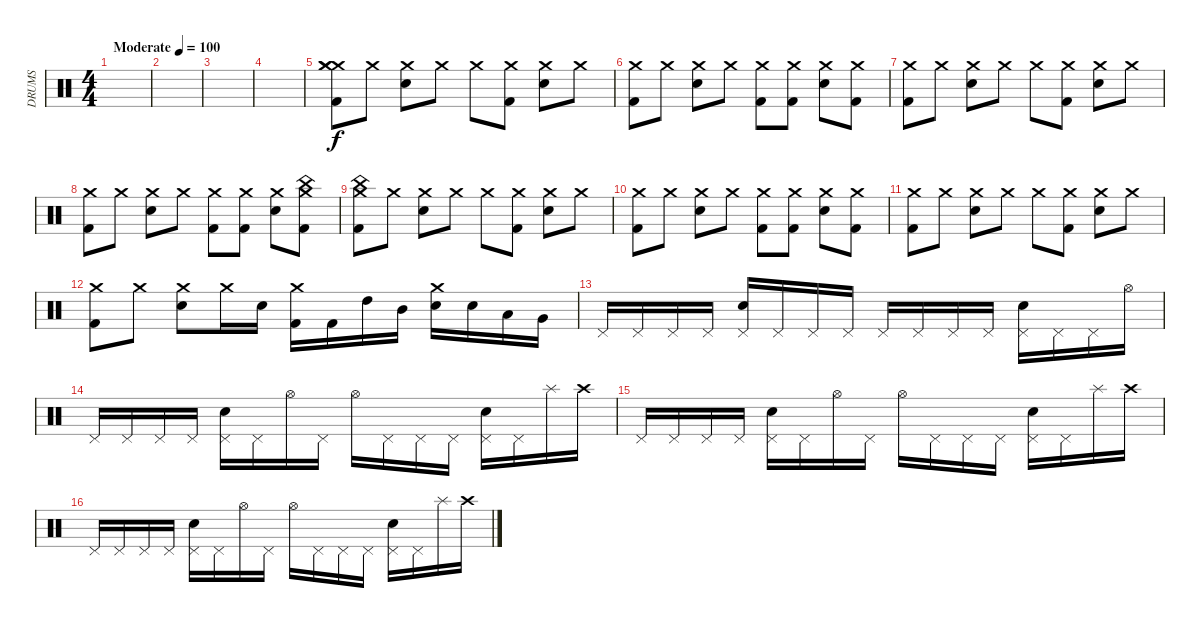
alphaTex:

\track ("DRUMS" "DRUMS") {instrument percussion}
\staff {score}
\articulation defaults
\ts (4 4)
\tempo (100 "Moderate")
\clef neutral
\ks c
|
|
|
|
("Crash medium (hit)" "Crash medium (hit)" "Crash medium (hit)" "Kick (hit) 2").8 "Crash medium (hit)".8 ("Crash medium (hit)" "Electric Snare (hit)").8 "Crash medium (hit)".8 "Crash medium (hit)".8 ("Crash medium (hit)" "Kick (hit) 2").8 ("Crash medium (hit)" "Electric Snare (hit)").8 "Crash medium (hit)".8 |
("Crash medium (hit)" "Kick (hit) 2").8 "Crash medium (hit)".8 ("Crash medium (hit)" "Electric Snare (hit)").8 "Crash medium (hit)".8 ("Crash medium (hit)" "Kick (hit) 2").8 ("Crash medium (hit)" "Kick (hit) 2").8 ("Crash medium (hit)" "Electric Snare (hit)").8 ("Crash medium (hit)" "Kick (hit) 2").8 |
("Crash medium (hit)" "Kick (hit) 2").8 "Crash medium (hit)".8 ("Crash medium (hit)" "Electric Snare (hit)").8 "Crash medium (hit)".8 "Crash medium (hit)".8 ("Crash medium (hit)" "Kick (hit) 2").8 ("Crash medium (hit)" "Electric Snare (hit)").8 "Crash medium (hit)".8 |
("Crash medium (hit)" "Kick (hit) 2").8 "Crash medium (hit)".8 ("Crash medium (hit)" "Electric Snare (hit)").8 "Crash medium (hit)".8 ("Crash medium (hit)" "Kick (hit) 2").8 ("Crash medium (hit)" "Kick (hit) 2").8 ("Crash medium (hit)" "Electric Snare (hit)").8 ("Crash medium (hit)" "China (hit)" "Kick (hit) 2").8 |
("Crash medium (hit)" "China (hit)" "Kick (hit) 2").8 "Crash medium (hit)".8 ("Crash medium (hit)" "Electric Snare (hit)").8 "Crash medium (hit)".8 "Crash medium (hit)".8 ("Crash medium (hit)" "Kick (hit) 2").8 ("Crash medium (hit)" "Electric Snare (hit)").8 "Crash medium (hit)".8 |
("Crash medium (hit)" "Kick (hit) 2").8 "Crash medium (hit)".8 ("Crash medium (hit)" "Electric Snare (hit)").8 "Crash medium (hit)".8 ("Crash medium (hit)" "Kick (hit) 2").8 ("Crash medium (hit)" "Kick (hit) 2").8 ("Crash medium (hit)" "Electric Snare (hit)").8 ("Crash medium (hit)" "Kick (hit) 2").8 |
("Crash medium (hit)" "Kick (hit) 2").8 "Crash medium (hit)".8 ("Crash medium (hit)" "Electric Snare (hit)").8 "Crash medium (hit)".8 "Crash medium (hit)".8 ("Crash medium (hit)" "Kick (hit) 2").8 ("Crash medium (hit)" "Electric Snare (hit)").8 "Crash medium (hit)".8 |
("Crash medium (hit)" "Kick (hit) 2").8 "Crash medium (hit)".8 ("Crash medium (hit)" "Electric Snare (hit)").8 "Crash medium (hit)".16 "Electric Snare (hit)".16 ("Crash medium (hit)" "Kick (hit) 2").16 "Kick (hit) 2".16 "High Tom (hit)".16 "Mid Tom (hit)".16 ("Crash medium (hit)" "Electric Snare (hit)").16 "Electric Snare (hit)".16 "Low Tom (hit)".16 "Very Low Tom (hit)".16 |
"Pedal Hi-Hat (hit)".16 "Pedal Hi-Hat (hit)".16 "Pedal Hi-Hat (hit)".16 "Pedal Hi-Hat (hit)".16 ("Pedal Hi-Hat (hit)" "Electric Snare (hit)").16 "Pedal Hi-Hat (hit)".16 "Pedal Hi-Hat (hit)".16 "Pedal Hi-Hat (hit)".16 "Pedal Hi-Hat (hit)".16 "Pedal Hi-Hat (hit)".16 "Pedal Hi-Hat (hit)".16 "Pedal Hi-Hat (hit)".16 ("Pedal Hi-Hat (hit)" "Electric Snare (hit)").16 "Pedal Hi-Hat (hit)".16 "Pedal Hi-Hat (hit)".16 "Hi-Hat (open)".16 |
"Pedal Hi-Hat (hit)".16 "Pedal Hi-Hat (hit)".16 "Pedal Hi-Hat (hit)".16 "Pedal Hi-Hat (hit)".16 ("Pedal Hi-Hat (hit)" "Electric Snare (hit)").16 "Pedal Hi-Hat (hit)".16 "Hi-Hat (open)".16 "Pedal Hi-Hat (hit)".16 "Hi-Hat (open)".16 "Pedal Hi-Hat (hit)".16 "Pedal Hi-Hat (hit)".16 "Pedal Hi-Hat (hit)".16 ("Pedal Hi-Hat (hit)" "Electric Snare (hit)").16 "Pedal Hi-Hat (hit)".16 "Splash (hit)".16 "Crash high (hit)".16 |
"Pedal Hi-Hat (hit)".16 "Pedal Hi-Hat (hit)".16 "Pedal Hi-Hat (hit)".16 "Pedal Hi-Hat (hit)".16 ("Pedal Hi-Hat (hit)" "Electric Snare (hit)").16 "Pedal Hi-Hat (hit)".16 "Hi-Hat (open)".16 "Pedal Hi-Hat (hit)".16 "Hi-Hat (open)".16 "Pedal Hi-Hat (hit)".16 "Pedal Hi-Hat (hit)".16 "Pedal Hi-Hat (hit)".16 ("Pedal Hi-Hat (hit)" "Electric Snare (hit)").16 "Pedal Hi-Hat (hit)".16 "Splash (hit)".16 "Crash high (hit)".16 |
"Pedal Hi-Hat (hit)".16 "Pedal Hi-Hat (hit)".16 "Pedal Hi-Hat (hit)".16 "Pedal Hi-Hat (hit)".16 ("Pedal Hi-Hat (hit)" "Electric Snare (hit)").16 "Pedal Hi-Hat (hit)".16 "Hi-Hat (open)".16 "Pedal Hi-Hat (hit)".16 "Hi-Hat (open)".16 "Pedal Hi-Hat (hit)".16 "Pedal Hi-Hat (hit)".16 "Pedal Hi-Hat (hit)".16 ("Pedal Hi-Hat (hit)" "Electric Snare (hit)").16 "Pedal Hi-Hat (hit)".16 "Splash (hit)".16 "Crash high (hit)".16
